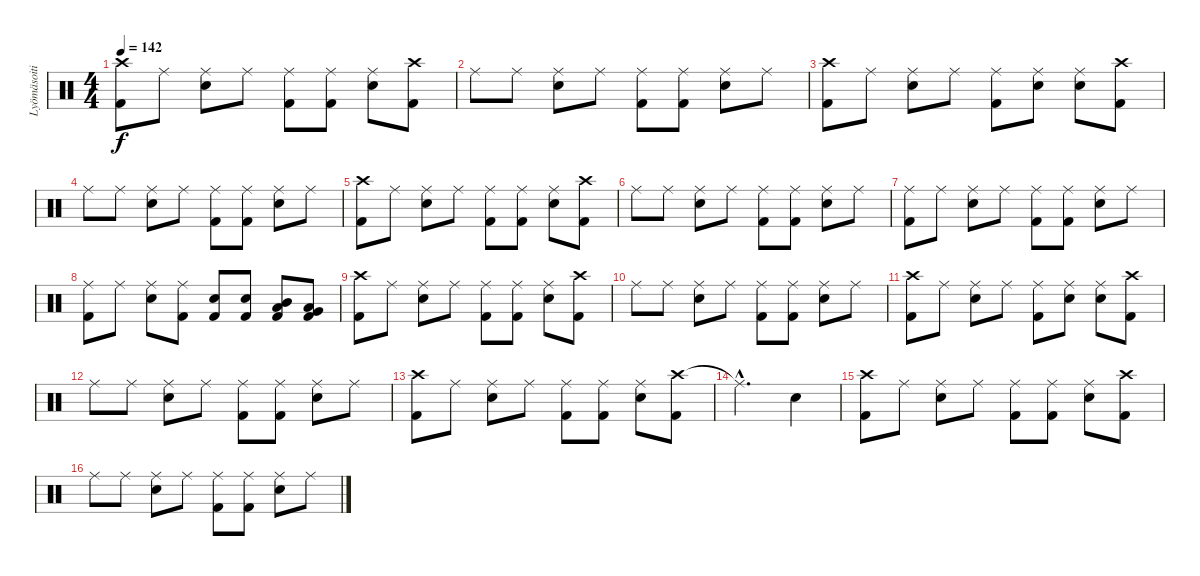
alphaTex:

\track ("Lyömäsoitin" "Lyömäsoiti") {instrument percussion}
\staff {score}
\articulation defaults
\ts (4 4)
\tempo 142
\clef neutral
\ks c
("Crash high (hit)" "Kick (hit) 2").8{dy f} "Ride (middle)".8 ("Ride (middle)" "Electric Snare (hit)").8 "Ride (middle)".8 ("Ride (middle)" "Kick (hit) 2").8 ("Ride (middle)" "Kick (hit) 2").8 ("Ride (middle)" "Electric Snare (hit)").8 ("Crash high (hit)" "Kick (hit) 2").8 |
"Ride (middle)".8 "Ride (middle)".8 ("Ride (middle)" "Electric Snare (hit)").8 "Ride (middle)".8 ("Ride (middle)" "Kick (hit) 2").8 ("Ride (middle)" "Kick (hit) 2").8 ("Ride (middle)" "Electric Snare (hit)").8 "Ride (middle)".8 |
("Crash high (hit)" "Kick (hit) 2").8 "Ride (middle)".8 ("Ride (middle)" "Electric Snare (hit)").8 "Ride (middle)".8 ("Ride (middle)" "Kick (hit) 2").8 ("Ride (middle)" "Electric Snare (hit)").8 ("Ride (middle)" "Electric Snare (hit)").8 ("Crash high (hit)" "Kick (hit) 2").8 |
"Ride (middle)".8 "Ride (middle)".8 ("Ride (middle)" "Electric Snare (hit)").8 "Ride (middle)".8 ("Ride (middle)" "Kick (hit) 2").8 ("Ride (middle)" "Kick (hit) 2").8 ("Ride (middle)" "Electric Snare (hit)").8 "Ride (middle)".8 |
("Crash high (hit)" "Kick (hit) 2").8 "Ride (middle)".8 ("Ride (middle)" "Electric Snare (hit)").8 "Ride (middle)".8 ("Ride (middle)" "Kick (hit) 2").8 ("Ride (middle)" "Kick (hit) 2").8 ("Ride (middle)" "Electric Snare (hit)").8 ("Crash high (hit)" "Kick (hit) 2").8 |
"Ride (middle)".8 "Ride (middle)".8 ("Ride (middle)" "Electric Snare (hit)").8 "Ride (middle)".8 ("Ride (middle)" "Kick (hit) 2").8 ("Ride (middle)" "Kick (hit) 2").8 ("Ride (middle)" "Electric Snare (hit)").8 "Ride (middle)".8 |
("Ride (middle)" "Kick (hit) 2").8 "Ride (middle)".8 ("Ride (middle)" "Electric Snare (hit)").8 "Ride (middle)".8 ("Ride (middle)" "Kick (hit) 2").8 ("Ride (middle)" "Kick (hit) 2").8 ("Ride (middle)" "Electric Snare (hit)").8 "Ride (middle)".8 |
("Ride (middle)" "Kick (hit) 2").8 "Ride (middle)".8 ("Ride (middle)" "Electric Snare (hit)").8 ("Ride (middle)" "Kick (hit) 2").8 ("Electric Snare (hit)" "Kick (hit) 2").8 ("Electric Snare (hit)" "Kick (hit) 2").8 ("Mid Tom (hit)" "Low Tom (hit)" "Kick (hit) 2").8 ("Low Tom (hit)" "Very Low Tom (hit)" "Kick (hit) 2").8 |
("Crash high (hit)" "Kick (hit) 2").8 "Ride (middle)".8 ("Ride (middle)" "Electric Snare (hit)").8 "Ride (middle)".8 ("Ride (middle)" "Kick (hit) 2").8 ("Ride (middle)" "Kick (hit) 2").8 ("Ride (middle)" "Electric Snare (hit)").8 ("Crash high (hit)" "Kick (hit) 2").8 |
"Ride (middle)".8 "Ride (middle)".8 ("Ride (middle)" "Electric Snare (hit)").8 "Ride (middle)".8 ("Ride (middle)" "Kick (hit) 2").8 ("Ride (middle)" "Kick (hit) 2").8 ("Ride (middle)" "Electric Snare (hit)").8 "Ride (middle)".8 |
("Crash high (hit)" "Kick (hit) 2").8 "Ride (middle)".8 ("Ride (middle)" "Electric Snare (hit)").8 "Ride (middle)".8 ("Ride (middle)" "Kick (hit) 2").8 ("Ride (middle)" "Electric Snare (hit)").8 ("Ride (middle)" "Electric Snare (hit)").8 ("Crash high (hit)" "Kick (hit) 2").8 |
"Ride (middle)".8 "Ride (middle)".8 ("Ride (middle)" "Electric Snare (hit)").8 "Ride (middle)".8 ("Ride (middle)" "Kick (hit) 2").8 ("Ride (middle)" "Kick (hit) 2").8 ("Ride (middle)" "Electric Snare (hit)").8 "Ride (middle)".8 |
("Crash high (hit)" "Kick (hit) 2").8 "Ride (middle)".8 ("Ride (middle)" "Electric Snare (hit)").8 "Ride (middle)".8 ("Ride (middle)" "Kick (hit) 2").8 ("Ride (middle)" "Kick (hit) 2").8 ("Ride (middle)" "Electric Snare (hit)").8 ("Crash high (hit)" "Kick (hit) 2").8 |
"Ride (middle)"{hac t}.2{d} "Electric Snare (hit)".4 |
("Crash high (hit)" "Kick (hit) 2").8 "Ride (middle)".8 ("Ride (middle)" "Electric Snare (hit)").8 "Ride (middle)".8 ("Ride (middle)" "Kick (hit) 2").8 ("Ride (middle)" "Kick (hit) 2").8 ("Ride (middle)" "Electric Snare (hit)").8 ("Crash high (hit)" "Kick (hit) 2").8 |
"Ride (middle)".8 "Ride (middle)".8 ("Ride (middle)" "Electric Snare (hit)").8 "Ride (middle)".8 ("Ride (middle)" "Kick (hit) 2").8 ("Ride (middle)" "Kick (hit) 2").8 ("Ride (middle)" "Electric Snare (hit)").8 "Ride (middle)".8
